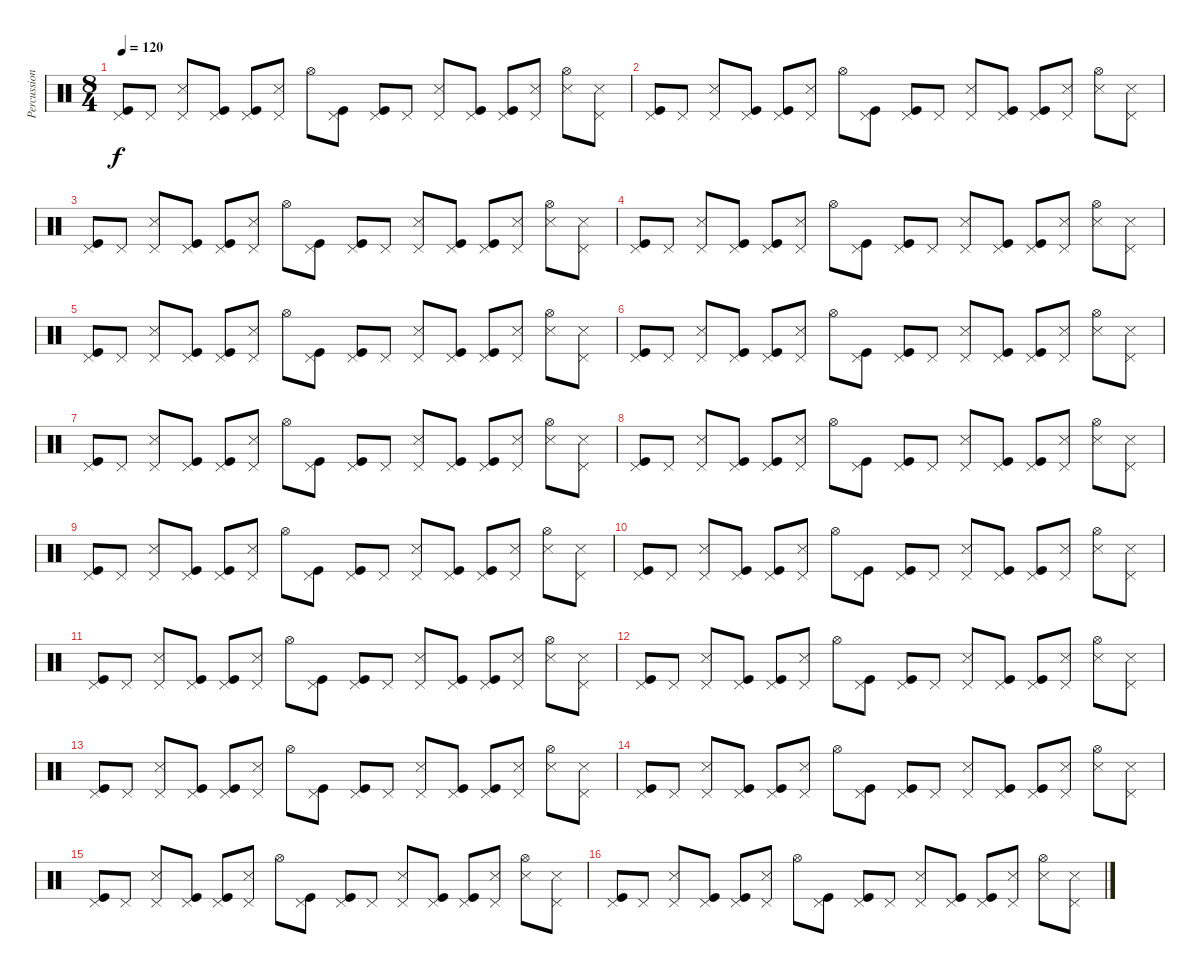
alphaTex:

\track ("Percussion" "Percussion") {instrument percussion}
\staff {score}
\articulation defaults
\ts (8 4)
\tempo 120
\clef neutral
\ks c
("Pedal Hi-Hat (hit)" "Kick (hit)").8{dy f} "Pedal Hi-Hat (hit)".8 ("Pedal Hi-Hat (hit)" "Snare (side stick) 3").8 ("Pedal Hi-Hat (hit)" "Kick (hit)").8 ("Pedal Hi-Hat (hit)" "Kick (hit)").8 ("Pedal Hi-Hat (hit)" "Snare (side stick) 3").8 "Hi-Hat (open)".8 ("Pedal Hi-Hat (hit)" "Kick (hit)").8 ("Pedal Hi-Hat (hit)" "Kick (hit)").8 "Pedal Hi-Hat (hit)".8 ("Pedal Hi-Hat (hit)" "Snare (side stick) 3").8 ("Pedal Hi-Hat (hit)" "Kick (hit)").8 ("Pedal Hi-Hat (hit)" "Kick (hit)").8 ("Pedal Hi-Hat (hit)" "Snare (side stick) 3").8 ("Hi-Hat (open)" "Snare (side stick) 3").8 ("Pedal Hi-Hat (hit)" "Snare (side stick) 3").8 |
("Pedal Hi-Hat (hit)" "Kick (hit)").8 "Pedal Hi-Hat (hit)".8 ("Pedal Hi-Hat (hit)" "Snare (side stick) 3").8 ("Pedal Hi-Hat (hit)" "Kick (hit)").8 ("Pedal Hi-Hat (hit)" "Kick (hit)").8 ("Pedal Hi-Hat (hit)" "Snare (side stick) 3").8 "Hi-Hat (open)".8 ("Pedal Hi-Hat (hit)" "Kick (hit)").8 ("Pedal Hi-Hat (hit)" "Kick (hit)").8 "Pedal Hi-Hat (hit)".8 ("Pedal Hi-Hat (hit)" "Snare (side stick) 3").8 ("Pedal Hi-Hat (hit)" "Kick (hit)").8 ("Pedal Hi-Hat (hit)" "Kick (hit)").8 ("Pedal Hi-Hat (hit)" "Snare (side stick) 3").8 ("Hi-Hat (open)" "Snare (side stick) 3").8 ("Pedal Hi-Hat (hit)" "Snare (side stick) 3").8 |
("Pedal Hi-Hat (hit)" "Kick (hit)").8 "Pedal Hi-Hat (hit)".8 ("Pedal Hi-Hat (hit)" "Snare (side stick) 3").8 ("Pedal Hi-Hat (hit)" "Kick (hit)").8 ("Pedal Hi-Hat (hit)" "Kick (hit)").8 ("Pedal Hi-Hat (hit)" "Snare (side stick) 3").8 "Hi-Hat (open)".8 ("Pedal Hi-Hat (hit)" "Kick (hit)").8 ("Pedal Hi-Hat (hit)" "Kick (hit)").8 "Pedal Hi-Hat (hit)".8 ("Pedal Hi-Hat (hit)" "Snare (side stick) 3").8 ("Pedal Hi-Hat (hit)" "Kick (hit)").8 ("Pedal Hi-Hat (hit)" "Kick (hit)").8 ("Pedal Hi-Hat (hit)" "Snare (side stick) 3").8 ("Hi-Hat (open)" "Snare (side stick) 3").8 ("Pedal Hi-Hat (hit)" "Snare (side stick) 3").8 |
("Pedal Hi-Hat (hit)" "Kick (hit)").8 "Pedal Hi-Hat (hit)".8 ("Pedal Hi-Hat (hit)" "Snare (side stick) 3").8 ("Pedal Hi-Hat (hit)" "Kick (hit)").8 ("Pedal Hi-Hat (hit)" "Kick (hit)").8 ("Pedal Hi-Hat (hit)" "Snare (side stick) 3").8 "Hi-Hat (open)".8 ("Pedal Hi-Hat (hit)" "Kick (hit)").8 ("Pedal Hi-Hat (hit)" "Kick (hit)").8 "Pedal Hi-Hat (hit)".8 ("Pedal Hi-Hat (hit)" "Snare (side stick) 3").8 ("Pedal Hi-Hat (hit)" "Kick (hit)").8 ("Pedal Hi-Hat (hit)" "Kick (hit)").8 ("Pedal Hi-Hat (hit)" "Snare (side stick) 3").8 ("Hi-Hat (open)" "Snare (side stick) 3").8 ("Pedal Hi-Hat (hit)" "Snare (side stick) 3").8 |
("Pedal Hi-Hat (hit)" "Kick (hit)").8 "Pedal Hi-Hat (hit)".8 ("Pedal Hi-Hat (hit)" "Snare (side stick) 3").8 ("Pedal Hi-Hat (hit)" "Kick (hit)").8 ("Pedal Hi-Hat (hit)" "Kick (hit)").8 ("Pedal Hi-Hat (hit)" "Snare (side stick) 3").8 "Hi-Hat (open)".8 ("Pedal Hi-Hat (hit)" "Kick (hit)").8 ("Pedal Hi-Hat (hit)" "Kick (hit)").8 "Pedal Hi-Hat (hit)".8 ("Pedal Hi-Hat (hit)" "Snare (side stick) 3").8 ("Pedal Hi-Hat (hit)" "Kick (hit)").8 ("Pedal Hi-Hat (hit)" "Kick (hit)").8 ("Pedal Hi-Hat (hit)" "Snare (side stick) 3").8 ("Hi-Hat (open)" "Snare (side stick) 3").8 ("Pedal Hi-Hat (hit)" "Snare (side stick) 3").8 |
("Pedal Hi-Hat (hit)" "Kick (hit)").8 "Pedal Hi-Hat (hit)".8 ("Pedal Hi-Hat (hit)" "Snare (side stick) 3").8 ("Pedal Hi-Hat (hit)" "Kick (hit)").8 ("Pedal Hi-Hat (hit)" "Kick (hit)").8 ("Pedal Hi-Hat (hit)" "Snare (side stick) 3").8 "Hi-Hat (open)".8 ("Pedal Hi-Hat (hit)" "Kick (hit)").8 ("Pedal Hi-Hat (hit)" "Kick (hit)").8 "Pedal Hi-Hat (hit)".8 ("Pedal Hi-Hat (hit)" "Snare (side stick) 3").8 ("Pedal Hi-Hat (hit)" "Kick (hit)").8 ("Pedal Hi-Hat (hit)" "Kick (hit)").8 ("Pedal Hi-Hat (hit)" "Snare (side stick) 3").8 ("Hi-Hat (open)" "Snare (side stick) 3").8 ("Pedal Hi-Hat (hit)" "Snare (side stick) 3").8 |
("Pedal Hi-Hat (hit)" "Kick (hit)").8 "Pedal Hi-Hat (hit)".8 ("Pedal Hi-Hat (hit)" "Snare (side stick) 3").8 ("Pedal Hi-Hat (hit)" "Kick (hit)").8 ("Pedal Hi-Hat (hit)" "Kick (hit)").8 ("Pedal Hi-Hat (hit)" "Snare (side stick) 3").8 "Hi-Hat (open)".8 ("Pedal Hi-Hat (hit)" "Kick (hit)").8 ("Pedal Hi-Hat (hit)" "Kick (hit)").8 "Pedal Hi-Hat (hit)".8 ("Pedal Hi-Hat (hit)" "Snare (side stick) 3").8 ("Pedal Hi-Hat (hit)" "Kick (hit)").8 ("Pedal Hi-Hat (hit)" "Kick (hit)").8 ("Pedal Hi-Hat (hit)" "Snare (side stick) 3").8 ("Hi-Hat (open)" "Snare (side stick) 3").8 ("Pedal Hi-Hat (hit)" "Snare (side stick) 3").8 |
("Pedal Hi-Hat (hit)" "Kick (hit)").8 "Pedal Hi-Hat (hit)".8 ("Pedal Hi-Hat (hit)" "Snare (side stick) 3").8 ("Pedal Hi-Hat (hit)" "Kick (hit)").8 ("Pedal Hi-Hat (hit)" "Kick (hit)").8 ("Pedal Hi-Hat (hit)" "Snare (side stick) 3").8 "Hi-Hat (open)".8 ("Pedal Hi-Hat (hit)" "Kick (hit)").8 ("Pedal Hi-Hat (hit)" "Kick (hit)").8 "Pedal Hi-Hat (hit)".8 ("Pedal Hi-Hat (hit)" "Snare (side stick) 3").8 ("Pedal Hi-Hat (hit)" "Kick (hit)").8 ("Pedal Hi-Hat (hit)" "Kick (hit)").8 ("Pedal Hi-Hat (hit)" "Snare (side stick) 3").8 ("Hi-Hat (open)" "Snare (side stick) 3").8 ("Pedal Hi-Hat (hit)" "Snare (side stick) 3").8 |
("Pedal Hi-Hat (hit)" "Kick (hit)").8 "Pedal Hi-Hat (hit)".8 ("Pedal Hi-Hat (hit)" "Snare (side stick) 3").8 ("Pedal Hi-Hat (hit)" "Kick (hit)").8 ("Pedal Hi-Hat (hit)" "Kick (hit)").8 ("Pedal Hi-Hat (hit)" "Snare (side stick) 3").8 "Hi-Hat (open)".8 ("Pedal Hi-Hat (hit)" "Kick (hit)").8 ("Pedal Hi-Hat (hit)" "Kick (hit)").8 "Pedal Hi-Hat (hit)".8 ("Pedal Hi-Hat (hit)" "Snare (side stick) 3").8 ("Pedal Hi-Hat (hit)" "Kick (hit)").8 ("Pedal Hi-Hat (hit)" "Kick (hit)").8 ("Pedal Hi-Hat (hit)" "Snare (side stick) 3").8 ("Hi-Hat (open)" "Snare (side stick) 3").8 ("Pedal Hi-Hat (hit)" "Snare (side stick) 3").8 |
("Pedal Hi-Hat (hit)" "Kick (hit)").8 "Pedal Hi-Hat (hit)".8 ("Pedal Hi-Hat (hit)" "Snare (side stick) 3").8 ("Pedal Hi-Hat (hit)" "Kick (hit)").8 ("Pedal Hi-Hat (hit)" "Kick (hit)").8 ("Pedal Hi-Hat (hit)" "Snare (side stick) 3").8 "Hi-Hat (open)".8 ("Pedal Hi-Hat (hit)" "Kick (hit)").8 ("Pedal Hi-Hat (hit)" "Kick (hit)").8 "Pedal Hi-Hat (hit)".8 ("Pedal Hi-Hat (hit)" "Snare (side stick) 3").8 ("Pedal Hi-Hat (hit)" "Kick (hit)").8 ("Pedal Hi-Hat (hit)" "Kick (hit)").8 ("Pedal Hi-Hat (hit)" "Snare (side stick) 3").8 ("Hi-Hat (open)" "Snare (side stick) 3").8 ("Pedal Hi-Hat (hit)" "Snare (side stick) 3").8 |
("Pedal Hi-Hat (hit)" "Kick (hit)").8 "Pedal Hi-Hat (hit)".8 ("Pedal Hi-Hat (hit)" "Snare (side stick) 3").8 ("Pedal Hi-Hat (hit)" "Kick (hit)").8 ("Pedal Hi-Hat (hit)" "Kick (hit)").8 ("Pedal Hi-Hat (hit)" "Snare (side stick) 3").8 "Hi-Hat (open)".8 ("Pedal Hi-Hat (hit)" "Kick (hit)").8 ("Pedal Hi-Hat (hit)" "Kick (hit)").8 "Pedal Hi-Hat (hit)".8 ("Pedal Hi-Hat (hit)" "Snare (side stick) 3").8 ("Pedal Hi-Hat (hit)" "Kick (hit)").8 ("Pedal Hi-Hat (hit)" "Kick (hit)").8 ("Pedal Hi-Hat (hit)" "Snare (side stick) 3").8 ("Hi-Hat (open)" "Snare (side stick) 3").8 ("Pedal Hi-Hat (hit)" "Snare (side stick) 3").8 |
("Pedal Hi-Hat (hit)" "Kick (hit)").8 "Pedal Hi-Hat (hit)".8 ("Pedal Hi-Hat (hit)" "Snare (side stick) 3").8 ("Pedal Hi-Hat (hit)" "Kick (hit)").8 ("Pedal Hi-Hat (hit)" "Kick (hit)").8 ("Pedal Hi-Hat (hit)" "Snare (side stick) 3").8 "Hi-Hat (open)".8 ("Pedal Hi-Hat (hit)" "Kick (hit)").8 ("Pedal Hi-Hat (hit)" "Kick (hit)").8 "Pedal Hi-Hat (hit)".8 ("Pedal Hi-Hat (hit)" "Snare (side stick) 3").8 ("Pedal Hi-Hat (hit)" "Kick (hit)").8 ("Pedal Hi-Hat (hit)" "Kick (hit)").8 ("Pedal Hi-Hat (hit)" "Snare (side stick) 3").8 ("Hi-Hat (open)" "Snare (side stick) 3").8 ("Pedal Hi-Hat (hit)" "Snare (side stick) 3").8 |
("Pedal Hi-Hat (hit)" "Kick (hit)").8 "Pedal Hi-Hat (hit)".8 ("Pedal Hi-Hat (hit)" "Snare (side stick) 3").8 ("Pedal Hi-Hat (hit)" "Kick (hit)").8 ("Pedal Hi-Hat (hit)" "Kick (hit)").8 ("Pedal Hi-Hat (hit)" "Snare (side stick) 3").8 "Hi-Hat (open)".8 ("Pedal Hi-Hat (hit)" "Kick (hit)").8 ("Pedal Hi-Hat (hit)" "Kick (hit)").8 "Pedal Hi-Hat (hit)".8 ("Pedal Hi-Hat (hit)" "Snare (side stick) 3").8 ("Pedal Hi-Hat (hit)" "Kick (hit)").8 ("Pedal Hi-Hat (hit)" "Kick (hit)").8 ("Pedal Hi-Hat (hit)" "Snare (side stick) 3").8 ("Hi-Hat (open)" "Snare (side stick) 3").8 ("Pedal Hi-Hat (hit)" "Snare (side stick) 3").8 |
("Pedal Hi-Hat (hit)" "Kick (hit)").8 "Pedal Hi-Hat (hit)".8 ("Pedal Hi-Hat (hit)" "Snare (side stick) 3").8 ("Pedal Hi-Hat (hit)" "Kick (hit)").8 ("Pedal Hi-Hat (hit)" "Kick (hit)").8 ("Pedal Hi-Hat (hit)" "Snare (side stick) 3").8 "Hi-Hat (open)".8 ("Pedal Hi-Hat (hit)" "Kick (hit)").8 ("Pedal Hi-Hat (hit)" "Kick (hit)").8 "Pedal Hi-Hat (hit)".8 ("Pedal Hi-Hat (hit)" "Snare (side stick) 3").8 ("Pedal Hi-Hat (hit)" "Kick (hit)").8 ("Pedal Hi-Hat (hit)" "Kick (hit)").8 ("Pedal Hi-Hat (hit)" "Snare (side stick) 3").8 ("Hi-Hat (open)" "Snare (side stick) 3").8 ("Pedal Hi-Hat (hit)" "Snare (side stick) 3").8 |
("Pedal Hi-Hat (hit)" "Kick (hit)").8 "Pedal Hi-Hat (hit)".8 ("Pedal Hi-Hat (hit)" "Snare (side stick) 3").8 ("Pedal Hi-Hat (hit)" "Kick (hit)").8 ("Pedal Hi-Hat (hit)" "Kick (hit)").8 ("Pedal Hi-Hat (hit)" "Snare (side stick) 3").8 "Hi-Hat (open)".8 ("Pedal Hi-Hat (hit)" "Kick (hit)").8 ("Pedal Hi-Hat (hit)" "Kick (hit)").8 "Pedal Hi-Hat (hit)".8 ("Pedal Hi-Hat (hit)" "Snare (side stick) 3").8 ("Pedal Hi-Hat (hit)" "Kick (hit)").8 ("Pedal Hi-Hat (hit)" "Kick (hit)").8 ("Pedal Hi-Hat (hit)" "Snare (side stick) 3").8 ("Hi-Hat (open)" "Snare (side stick) 3").8 ("Pedal Hi-Hat (hit)" "Snare (side stick) 3").8 |
("Pedal Hi-Hat (hit)" "Kick (hit)").8 "Pedal Hi-Hat (hit)".8 ("Pedal Hi-Hat (hit)" "Snare (side stick) 3").8 ("Pedal Hi-Hat (hit)" "Kick (hit)").8 ("Pedal Hi-Hat (hit)" "Kick (hit)").8 ("Pedal Hi-Hat (hit)" "Snare (side stick) 3").8 "Hi-Hat (open)".8 ("Pedal Hi-Hat (hit)" "Kick (hit)").8 ("Pedal Hi-Hat (hit)" "Kick (hit)").8 "Pedal Hi-Hat (hit)".8 ("Pedal Hi-Hat (hit)" "Snare (side stick) 3").8 ("Pedal Hi-Hat (hit)" "Kick (hit)").8 ("Pedal Hi-Hat (hit)" "Kick (hit)").8 ("Pedal Hi-Hat (hit)" "Snare (side stick) 3").8 ("Hi-Hat (open)" "Snare (side stick) 3").8 ("Pedal Hi-Hat (hit)" "Snare (side stick) 3").8
